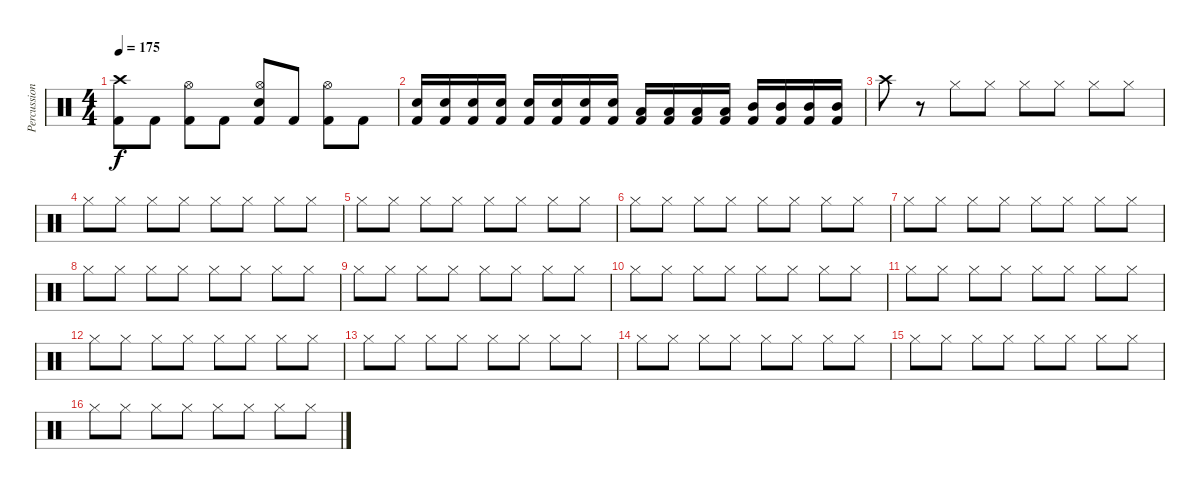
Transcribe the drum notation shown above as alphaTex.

\track ("Percussion" "Percussion") {instrument percussion}
\staff {score}
\articulation defaults
\ts (4 4)
\tempo 175
\clef neutral
\ks c
("Kick (hit) 2" "Crash high (hit)").8{dy f} "Kick (hit) 2".8 ("Kick (hit) 2" "Hi-Hat (open)").8 "Kick (hit) 2".8 ("Kick (hit) 2" "Snare (hit) 2" "Hi-Hat (open)").8 "Kick (hit) 2".8 ("Kick (hit) 2" "Hi-Hat (open)").8 "Kick (hit) 2".8 |
("Kick (hit) 2" "Snare (hit) 2").16 ("Kick (hit) 2" "Snare (hit) 2").16 ("Kick (hit) 2" "Snare (hit) 2").16 ("Kick (hit) 2" "Snare (hit) 2").16 ("Kick (hit) 2" "Snare (hit) 2").16 ("Kick (hit) 2" "Snare (hit) 2").16 ("Kick (hit) 2" "Snare (hit) 2").16 ("Kick (hit) 2" "Snare (hit) 2").16 ("Kick (hit) 2" "Low Tom (hit)").16 ("Kick (hit) 2" "Low Tom (hit)").16 ("Kick (hit) 2" "Low Tom (hit)").16 ("Kick (hit) 2" "Low Tom (hit)").16 ("Kick (hit) 2" "Mid Tom (hit)").16 ("Kick (hit) 2" "Mid Tom (hit)").16 ("Kick (hit) 2" "Mid Tom (hit)").16 ("Kick (hit) 2" "Mid Tom (hit)").16 |
"Crash high (hit)".8 r.8 "Hi-Hat (closed)".8 "Hi-Hat (closed)".8 "Hi-Hat (closed)".8 "Hi-Hat (closed)".8 "Hi-Hat (closed)".8 "Hi-Hat (closed)".8 |
"Hi-Hat (closed)".8 "Hi-Hat (closed)".8 "Hi-Hat (closed)".8 "Hi-Hat (closed)".8 "Hi-Hat (closed)".8 "Hi-Hat (closed)".8 "Hi-Hat (closed)".8 "Hi-Hat (closed)".8 |
"Hi-Hat (closed)".8 "Hi-Hat (closed)".8 "Hi-Hat (closed)".8 "Hi-Hat (closed)".8 "Hi-Hat (closed)".8 "Hi-Hat (closed)".8 "Hi-Hat (closed)".8 "Hi-Hat (closed)".8 |
"Hi-Hat (closed)".8 "Hi-Hat (closed)".8 "Hi-Hat (closed)".8 "Hi-Hat (closed)".8 "Hi-Hat (closed)".8 "Hi-Hat (closed)".8 "Hi-Hat (closed)".8 "Hi-Hat (closed)".8 |
"Hi-Hat (closed)".8 "Hi-Hat (closed)".8 "Hi-Hat (closed)".8 "Hi-Hat (closed)".8 "Hi-Hat (closed)".8 "Hi-Hat (closed)".8 "Hi-Hat (closed)".8 "Hi-Hat (closed)".8 |
"Hi-Hat (closed)".8 "Hi-Hat (closed)".8 "Hi-Hat (closed)".8 "Hi-Hat (closed)".8 "Hi-Hat (closed)".8 "Hi-Hat (closed)".8 "Hi-Hat (closed)".8 "Hi-Hat (closed)".8 |
"Hi-Hat (closed)".8 "Hi-Hat (closed)".8 "Hi-Hat (closed)".8 "Hi-Hat (closed)".8 "Hi-Hat (closed)".8 "Hi-Hat (closed)".8 "Hi-Hat (closed)".8 "Hi-Hat (closed)".8 |
"Hi-Hat (closed)".8 "Hi-Hat (closed)".8 "Hi-Hat (closed)".8 "Hi-Hat (closed)".8 "Hi-Hat (closed)".8 "Hi-Hat (closed)".8 "Hi-Hat (closed)".8 "Hi-Hat (closed)".8 |
"Hi-Hat (closed)".8 "Hi-Hat (closed)".8 "Hi-Hat (closed)".8 "Hi-Hat (closed)".8 "Hi-Hat (closed)".8 "Hi-Hat (closed)".8 "Hi-Hat (closed)".8 "Hi-Hat (closed)".8 |
"Hi-Hat (closed)".8 "Hi-Hat (closed)".8 "Hi-Hat (closed)".8 "Hi-Hat (closed)".8 "Hi-Hat (closed)".8 "Hi-Hat (closed)".8 "Hi-Hat (closed)".8 "Hi-Hat (closed)".8 |
"Hi-Hat (closed)".8 "Hi-Hat (closed)".8 "Hi-Hat (closed)".8 "Hi-Hat (closed)".8 "Hi-Hat (closed)".8 "Hi-Hat (closed)".8 "Hi-Hat (closed)".8 "Hi-Hat (closed)".8 |
"Hi-Hat (closed)".8 "Hi-Hat (closed)".8 "Hi-Hat (closed)".8 "Hi-Hat (closed)".8 "Hi-Hat (closed)".8 "Hi-Hat (closed)".8 "Hi-Hat (closed)".8 "Hi-Hat (closed)".8 |
"Hi-Hat (closed)".8 "Hi-Hat (closed)".8 "Hi-Hat (closed)".8 "Hi-Hat (closed)".8 "Hi-Hat (closed)".8 "Hi-Hat (closed)".8 "Hi-Hat (closed)".8 "Hi-Hat (closed)".8 |
"Hi-Hat (closed)".8 "Hi-Hat (closed)".8 "Hi-Hat (closed)".8 "Hi-Hat (closed)".8 "Hi-Hat (closed)".8 "Hi-Hat (closed)".8 "Hi-Hat (closed)".8 "Hi-Hat (closed)".8
